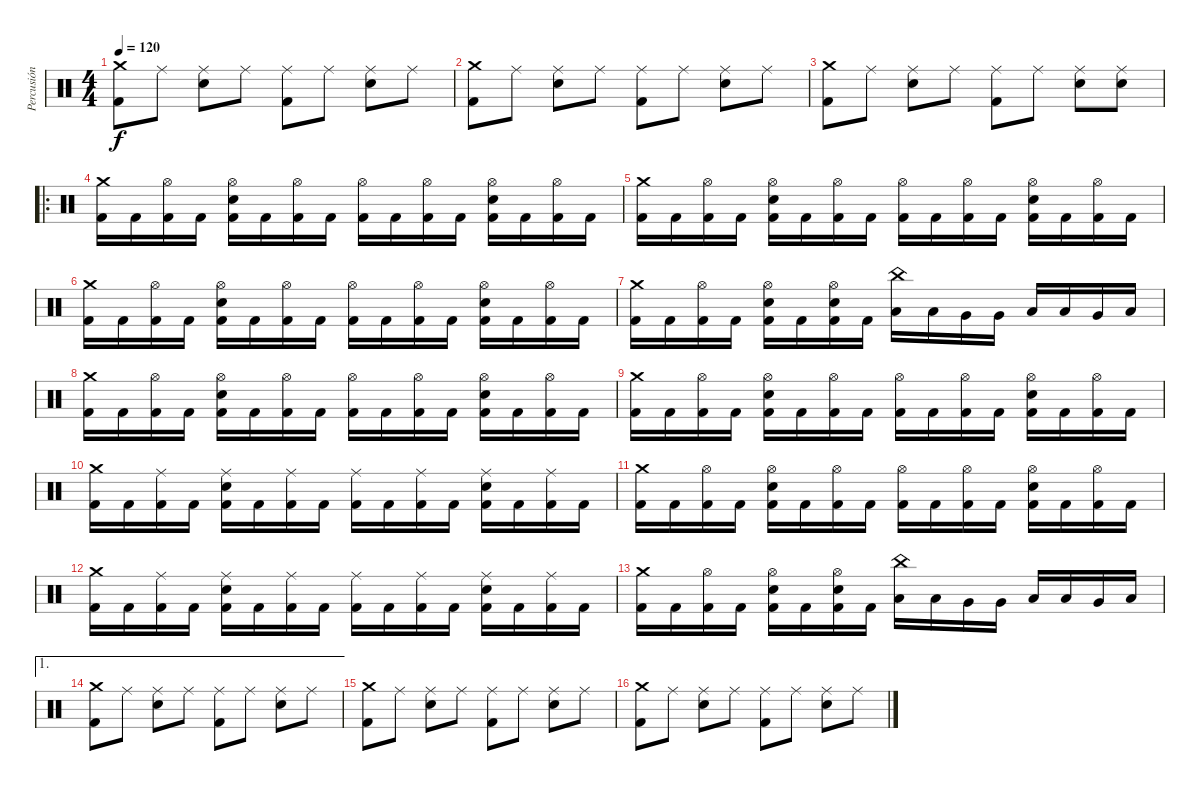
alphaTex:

\track ("Percusión" "Percusión") {instrument percussion}
\staff {score}
\articulation defaults
\ts (4 4)
\tempo 120
\clef neutral
\ks c
("Crash medium (hit)" "Kick (hit) 2").8{dy f} "Ride (middle)".8 ("Ride (middle)" "Electric Snare (hit)").8 "Ride (middle)".8 ("Ride (middle)" "Kick (hit) 2").8 "Ride (middle)".8 ("Ride (middle)" "Electric Snare (hit)").8 "Ride (middle)".8 |
("Crash medium (hit)" "Kick (hit) 2").8 "Ride (middle)".8 ("Ride (middle)" "Electric Snare (hit)").8 "Ride (middle)".8 ("Ride (middle)" "Kick (hit) 2").8 "Ride (middle)".8 ("Ride (middle)" "Electric Snare (hit)").8 "Ride (middle)".8 |
("Crash medium (hit)" "Kick (hit) 2").8 "Ride (middle)".8 ("Ride (middle)" "Electric Snare (hit)").8 "Ride (middle)".8 ("Ride (middle)" "Kick (hit) 2").8 "Ride (middle)".8 ("Ride (middle)" "Electric Snare (hit)").8 ("Ride (middle)" "Electric Snare (hit)").8 |
\ro
("Crash medium (hit)" "Kick (hit) 2").16 "Kick (hit) 2".16 ("Hi-Hat (open)" "Kick (hit) 2").16 "Kick (hit) 2".16 ("Hi-Hat (open)" "Electric Snare (hit)" "Kick (hit) 2").16 "Kick (hit) 2".16 ("Hi-Hat (open)" "Kick (hit) 2").16 "Kick (hit) 2".16 ("Hi-Hat (open)" "Kick (hit) 2").16 "Kick (hit) 2".16 ("Hi-Hat (open)" "Kick (hit) 2").16 "Kick (hit) 2".16 ("Hi-Hat (open)" "Electric Snare (hit)" "Kick (hit) 2").16 "Kick (hit) 2".16 ("Hi-Hat (open)" "Kick (hit) 2").16 "Kick (hit) 2".16 |
("Crash medium (hit)" "Kick (hit) 2").16 "Kick (hit) 2".16 ("Hi-Hat (open)" "Kick (hit) 2").16 "Kick (hit) 2".16 ("Hi-Hat (open)" "Electric Snare (hit)" "Kick (hit) 2").16 "Kick (hit) 2".16 ("Hi-Hat (open)" "Kick (hit) 2").16 "Kick (hit) 2".16 ("Hi-Hat (open)" "Kick (hit) 2").16 "Kick (hit) 2".16 ("Hi-Hat (open)" "Kick (hit) 2").16 "Kick (hit) 2".16 ("Hi-Hat (open)" "Electric Snare (hit)" "Kick (hit) 2").16 "Kick (hit) 2".16 ("Hi-Hat (open)" "Kick (hit) 2").16 "Kick (hit) 2".16 |
("Crash medium (hit)" "Kick (hit) 2").16 "Kick (hit) 2".16 ("Hi-Hat (open)" "Kick (hit) 2").16 "Kick (hit) 2".16 ("Hi-Hat (open)" "Electric Snare (hit)" "Kick (hit) 2").16 "Kick (hit) 2".16 ("Hi-Hat (open)" "Kick (hit) 2").16 "Kick (hit) 2".16 ("Hi-Hat (open)" "Kick (hit) 2").16 "Kick (hit) 2".16 ("Hi-Hat (open)" "Kick (hit) 2").16 "Kick (hit) 2".16 ("Hi-Hat (open)" "Electric Snare (hit)" "Kick (hit) 2").16 "Kick (hit) 2".16 ("Hi-Hat (open)" "Kick (hit) 2").16 "Kick (hit) 2".16 |
("Crash medium (hit)" "Kick (hit) 2").16 "Kick (hit) 2".16 ("Hi-Hat (open)" "Kick (hit) 2").16 "Kick (hit) 2".16 ("Hi-Hat (open)" "Electric Snare (hit)" "Kick (hit) 2").16 "Kick (hit) 2".16 ("Hi-Hat (open)" "Electric Snare (hit)" "Kick (hit) 2").16 "Kick (hit) 2".16 ("China (hit)" "Low Tom (hit)").16 "Low Tom (hit)".16 "Very Low Tom (hit)".16 "Very Low Tom (hit)".16 "Low Floor Tom (hit)".16 "Low Floor Tom (hit)".16 "Very Low Tom (hit)".16 "Low Tom (hit)".16 |
("Crash medium (hit)" "Kick (hit) 2").16 "Kick (hit) 2".16 ("Hi-Hat (open)" "Kick (hit) 2").16 "Kick (hit) 2".16 ("Hi-Hat (open)" "Electric Snare (hit)" "Kick (hit) 2").16 "Kick (hit) 2".16 ("Hi-Hat (open)" "Kick (hit) 2").16 "Kick (hit) 2".16 ("Hi-Hat (open)" "Kick (hit) 2").16 "Kick (hit) 2".16 ("Hi-Hat (open)" "Kick (hit) 2").16 "Kick (hit) 2".16 ("Hi-Hat (open)" "Electric Snare (hit)" "Kick (hit) 2").16 "Kick (hit) 2".16 ("Hi-Hat (open)" "Kick (hit) 2").16 "Kick (hit) 2".16 |
("Crash medium (hit)" "Kick (hit) 2").16 "Kick (hit) 2".16 ("Hi-Hat (open)" "Kick (hit) 2").16 "Kick (hit) 2".16 ("Hi-Hat (open)" "Electric Snare (hit)" "Kick (hit) 2").16 "Kick (hit) 2".16 ("Hi-Hat (open)" "Kick (hit) 2").16 "Kick (hit) 2".16 ("Hi-Hat (open)" "Kick (hit) 2").16 "Kick (hit) 2".16 ("Hi-Hat (open)" "Kick (hit) 2").16 "Kick (hit) 2".16 ("Hi-Hat (open)" "Electric Snare (hit)" "Kick (hit) 2").16 "Kick (hit) 2".16 ("Hi-Hat (open)" "Kick (hit) 2").16 "Kick (hit) 2".16 |
("Crash medium (hit)" "Kick (hit) 2").16 "Kick (hit) 2".16 ("Ride (middle)" "Kick (hit) 2").16 "Kick (hit) 2".16 ("Ride (middle)" "Electric Snare (hit)" "Kick (hit) 2").16 "Kick (hit) 2".16 ("Ride (middle)" "Kick (hit) 2").16 "Kick (hit) 2".16 ("Ride (middle)" "Kick (hit) 2").16 "Kick (hit) 2".16 ("Ride (middle)" "Kick (hit) 2").16 "Kick (hit) 2".16 ("Ride (middle)" "Electric Snare (hit)" "Kick (hit) 2").16 "Kick (hit) 2".16 ("Ride (middle)" "Kick (hit) 2").16 "Kick (hit) 2".16 |
("Crash medium (hit)" "Kick (hit) 2").16 "Kick (hit) 2".16 ("Hi-Hat (open)" "Kick (hit) 2").16 "Kick (hit) 2".16 ("Hi-Hat (open)" "Electric Snare (hit)" "Kick (hit) 2").16 "Kick (hit) 2".16 ("Hi-Hat (open)" "Kick (hit) 2").16 "Kick (hit) 2".16 ("Hi-Hat (open)" "Kick (hit) 2").16 "Kick (hit) 2".16 ("Hi-Hat (open)" "Kick (hit) 2").16 "Kick (hit) 2".16 ("Hi-Hat (open)" "Electric Snare (hit)" "Kick (hit) 2").16 "Kick (hit) 2".16 ("Hi-Hat (open)" "Kick (hit) 2").16 "Kick (hit) 2".16 |
("Crash medium (hit)" "Kick (hit) 2").16 "Kick (hit) 2".16 ("Ride (middle)" "Kick (hit) 2").16 "Kick (hit) 2".16 ("Ride (middle)" "Electric Snare (hit)" "Kick (hit) 2").16 "Kick (hit) 2".16 ("Ride (middle)" "Kick (hit) 2").16 "Kick (hit) 2".16 ("Ride (middle)" "Kick (hit) 2").16 "Kick (hit) 2".16 ("Ride (middle)" "Kick (hit) 2").16 "Kick (hit) 2".16 ("Ride (middle)" "Electric Snare (hit)" "Kick (hit) 2").16 "Kick (hit) 2".16 ("Ride (middle)" "Kick (hit) 2").16 "Kick (hit) 2".16 |
("Crash medium (hit)" "Kick (hit) 2").16 "Kick (hit) 2".16 ("Hi-Hat (open)" "Kick (hit) 2").16 "Kick (hit) 2".16 ("Hi-Hat (open)" "Electric Snare (hit)" "Kick (hit) 2").16 "Kick (hit) 2".16 ("Hi-Hat (open)" "Electric Snare (hit)" "Kick (hit) 2").16 "Kick (hit) 2".16 ("China (hit)" "Low Tom (hit)").16 "Low Tom (hit)".16 "Very Low Tom (hit)".16 "Very Low Tom (hit)".16 "Low Floor Tom (hit)".16 "Low Floor Tom (hit)".16 "Very Low Tom (hit)".16 "Low Tom (hit)".16 |
\ae 1
("Crash medium (hit)" "Kick (hit) 2").8 "Ride (middle)".8 ("Ride (middle)" "Electric Snare (hit)").8 "Ride (middle)".8 ("Ride (middle)" "Kick (hit) 2").8 "Ride (middle)".8 ("Ride (middle)" "Electric Snare (hit)").8 "Ride (middle)".8 |
("Crash medium (hit)" "Kick (hit) 2").8 "Ride (middle)".8 ("Ride (middle)" "Electric Snare (hit)").8 "Ride (middle)".8 ("Ride (middle)" "Kick (hit) 2").8 "Ride (middle)".8 ("Ride (middle)" "Electric Snare (hit)").8 "Ride (middle)".8 |
("Crash medium (hit)" "Kick (hit) 2").8 "Ride (middle)".8 ("Ride (middle)" "Electric Snare (hit)").8 "Ride (middle)".8 ("Ride (middle)" "Kick (hit) 2").8 "Ride (middle)".8 ("Ride (middle)" "Electric Snare (hit)").8 "Ride (middle)".8
